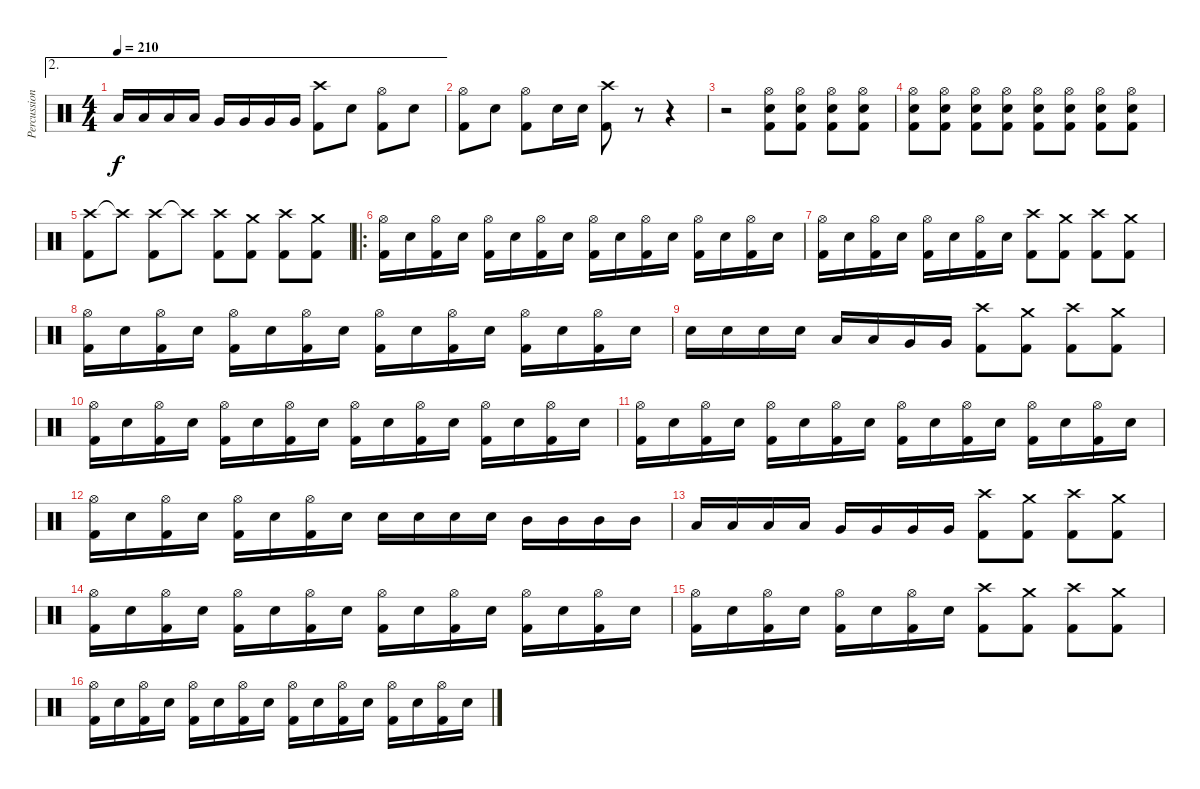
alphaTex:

\track ("Percussion" "Percussion") {instrument percussion}
\staff {score}
\articulation defaults
\ae 2
\ts (4 4)
\tempo 210
\clef neutral
\ks c "Low Tom (hit)".16{dy f} "Low Tom (hit)".16 "Low Tom (hit)".16 "Low Tom (hit)".16 "Very Low Tom (hit)".16 "Very Low Tom (hit)".16 "Very Low Tom (hit)".16 "Very Low Tom (hit)".16
("Crash high (hit)" "Kick (hit) 2").8 "Electric Snare (hit)".8 ("Hi-Hat (open)" "Kick (hit) 2").8 "Electric Snare (hit)".8 |
("Hi-Hat (open)" "Kick (hit) 2").8 "Electric Snare (hit)".8 ("Hi-Hat (open)" "Kick (hit) 2").8 "Electric Snare (hit)".16 "Electric Snare (hit)".16 ("Crash high (hit)" "Kick (hit) 2").8 r.8 r.4 |
r.2 ("Hi-Hat (open)" "Electric Snare (hit)" "Kick (hit) 2").8 ("Hi-Hat (open)" "Electric Snare (hit)" "Kick (hit) 2").8 ("Hi-Hat (open)" "Electric Snare (hit)" "Kick (hit) 2").8 ("Hi-Hat (open)" "Electric Snare (hit)" "Kick (hit) 2").8 |
("Hi-Hat (open)" "Electric Snare (hit)" "Kick (hit) 2").8 ("Hi-Hat (open)" "Electric Snare (hit)" "Kick (hit) 2").8 ("Hi-Hat (open)" "Electric Snare (hit)" "Kick (hit) 2").8 ("Hi-Hat (open)" "Electric Snare (hit)" "Kick (hit) 2").8 ("Hi-Hat (open)" "Electric Snare (hit)" "Kick (hit) 2").8 ("Hi-Hat (open)" "Electric Snare (hit)" "Kick (hit) 2").8 ("Hi-Hat (open)" "Electric Snare (hit)" "Kick (hit) 2").8 ("Hi-Hat (open)" "Electric Snare (hit)" "Kick (hit) 2").8 |
("Crash high (hit)" "Kick (hit) 2").8 "Crash high (hit)"{t}.8 ("Crash high (hit)" "Kick (hit) 2").8 "Crash high (hit)"{t}.8 ("Crash high (hit)" "Kick (hit) 2").8 ("Crash medium (hit)" "Kick (hit) 2").8 ("Crash high (hit)" "Kick (hit) 2").8 ("Crash medium (hit)" "Kick (hit) 2").8 |
\ro
("Hi-Hat (open)" "Kick (hit) 2").16 "Electric Snare (hit)".16 ("Hi-Hat (open)" "Kick (hit) 2").16 "Electric Snare (hit)".16 ("Hi-Hat (open)" "Kick (hit) 2").16 "Electric Snare (hit)".16 ("Hi-Hat (open)" "Kick (hit) 2").16 "Electric Snare (hit)".16 ("Hi-Hat (open)" "Kick (hit) 2").16 "Electric Snare (hit)".16 ("Hi-Hat (open)" "Kick (hit) 2").16 "Electric Snare (hit)".16 ("Hi-Hat (open)" "Kick (hit) 2").16 "Electric Snare (hit)".16 ("Hi-Hat (open)" "Kick (hit) 2").16 "Electric Snare (hit)".16 |
("Hi-Hat (open)" "Kick (hit) 2").16 "Electric Snare (hit)".16 ("Hi-Hat (open)" "Kick (hit) 2").16 "Electric Snare (hit)".16 ("Hi-Hat (open)" "Kick (hit) 2").16 "Electric Snare (hit)".16 ("Hi-Hat (open)" "Kick (hit) 2").16 "Electric Snare (hit)".16 ("Crash high (hit)" "Kick (hit) 2").8 ("Crash medium (hit)" "Kick (hit) 2").8 ("Crash high (hit)" "Kick (hit) 2").8 ("Crash medium (hit)" "Kick (hit) 2").8 |
("Hi-Hat (open)" "Kick (hit) 2").16 "Electric Snare (hit)".16 ("Hi-Hat (open)" "Kick (hit) 2").16 "Electric Snare (hit)".16 ("Hi-Hat (open)" "Kick (hit) 2").16 "Electric Snare (hit)".16 ("Hi-Hat (open)" "Kick (hit) 2").16 "Electric Snare (hit)".16 ("Hi-Hat (open)" "Kick (hit) 2").16 "Electric Snare (hit)".16 ("Hi-Hat (open)" "Kick (hit) 2").16 "Electric Snare (hit)".16 ("Hi-Hat (open)" "Kick (hit) 2").16 "Electric Snare (hit)".16 ("Hi-Hat (open)" "Kick (hit) 2").16 "Electric Snare (hit)".16 |
"Electric Snare (hit)".16 "Electric Snare (hit)".16 "Electric Snare (hit)".16 "Electric Snare (hit)".16 "Low Tom (hit)".16 "Low Tom (hit)".16 "Very Low Tom (hit)".16 "Very Low Tom (hit)".16 ("Crash high (hit)" "Kick (hit) 2").8 ("Crash medium (hit)" "Kick (hit) 2").8 ("Crash high (hit)" "Kick (hit) 2").8 ("Crash medium (hit)" "Kick (hit) 2").8 |
("Hi-Hat (open)" "Kick (hit) 2").16 "Electric Snare (hit)".16 ("Hi-Hat (open)" "Kick (hit) 2").16 "Electric Snare (hit)".16 ("Hi-Hat (open)" "Kick (hit) 2").16 "Electric Snare (hit)".16 ("Hi-Hat (open)" "Kick (hit) 2").16 "Electric Snare (hit)".16 ("Hi-Hat (open)" "Kick (hit) 2").16 "Electric Snare (hit)".16 ("Hi-Hat (open)" "Kick (hit) 2").16 "Electric Snare (hit)".16 ("Hi-Hat (open)" "Kick (hit) 2").16 "Electric Snare (hit)".16 ("Hi-Hat (open)" "Kick (hit) 2").16 "Electric Snare (hit)".16 |
("Hi-Hat (open)" "Kick (hit) 2").16 "Electric Snare (hit)".16 ("Hi-Hat (open)" "Kick (hit) 2").16 "Electric Snare (hit)".16 ("Hi-Hat (open)" "Kick (hit) 2").16 "Electric Snare (hit)".16 ("Hi-Hat (open)" "Kick (hit) 2").16 "Electric Snare (hit)".16 ("Hi-Hat (open)" "Kick (hit) 2").16 "Electric Snare (hit)".16 ("Hi-Hat (open)" "Kick (hit) 2").16 "Electric Snare (hit)".16 ("Hi-Hat (open)" "Kick (hit) 2").16 "Electric Snare (hit)".16 ("Hi-Hat (open)" "Kick (hit) 2").16 "Electric Snare (hit)".16 |
("Hi-Hat (open)" "Kick (hit) 2").16 "Electric Snare (hit)".16 ("Hi-Hat (open)" "Kick (hit) 2").16 "Electric Snare (hit)".16 ("Hi-Hat (open)" "Kick (hit) 2").16 "Electric Snare (hit)".16 ("Hi-Hat (open)" "Kick (hit) 2").16 "Electric Snare (hit)".16 "Electric Snare (hit)".16 "Electric Snare (hit)".16 "Electric Snare (hit)".16 "Electric Snare (hit)".16 "Mid Tom (hit)".16 "Mid Tom (hit)".16 "Mid Tom (hit)".16 "Mid Tom (hit)".16 |
"Low Tom (hit)".16 "Low Tom (hit)".16 "Low Tom (hit)".16 "Low Tom (hit)".16 "Very Low Tom (hit)".16 "Very Low Tom (hit)".16 "Very Low Tom (hit)".16 "Very Low Tom (hit)".16 ("Crash high (hit)" "Kick (hit) 2").8 ("Crash medium (hit)" "Kick (hit) 2").8 ("Crash high (hit)" "Kick (hit) 2").8 ("Crash medium (hit)" "Kick (hit) 2").8 |
("Hi-Hat (open)" "Kick (hit) 2").16 "Electric Snare (hit)".16 ("Hi-Hat (open)" "Kick (hit) 2").16 "Electric Snare (hit)".16 ("Hi-Hat (open)" "Kick (hit) 2").16 "Electric Snare (hit)".16 ("Hi-Hat (open)" "Kick (hit) 2").16 "Electric Snare (hit)".16 ("Hi-Hat (open)" "Kick (hit) 2").16 "Electric Snare (hit)".16 ("Hi-Hat (open)" "Kick (hit) 2").16 "Electric Snare (hit)".16 ("Hi-Hat (open)" "Kick (hit) 2").16 "Electric Snare (hit)".16 ("Hi-Hat (open)" "Kick (hit) 2").16 "Electric Snare (hit)".16 |
("Hi-Hat (open)" "Kick (hit) 2").16 "Electric Snare (hit)".16 ("Hi-Hat (open)" "Kick (hit) 2").16 "Electric Snare (hit)".16 ("Hi-Hat (open)" "Kick (hit) 2").16 "Electric Snare (hit)".16 ("Hi-Hat (open)" "Kick (hit) 2").16 "Electric Snare (hit)".16 ("Crash high (hit)" "Kick (hit) 2").8 ("Crash medium (hit)" "Kick (hit) 2").8 ("Crash high (hit)" "Kick (hit) 2").8 ("Crash medium (hit)" "Kick (hit) 2").8 |
("Hi-Hat (open)" "Kick (hit) 2").16 "Electric Snare (hit)".16 ("Hi-Hat (open)" "Kick (hit) 2").16 "Electric Snare (hit)".16 ("Hi-Hat (open)" "Kick (hit) 2").16 "Electric Snare (hit)".16 ("Hi-Hat (open)" "Kick (hit) 2").16 "Electric Snare (hit)".16 ("Hi-Hat (open)" "Kick (hit) 2").16 "Electric Snare (hit)".16 ("Hi-Hat (open)" "Kick (hit) 2").16 "Electric Snare (hit)".16 ("Hi-Hat (open)" "Kick (hit) 2").16 "Electric Snare (hit)".16 ("Hi-Hat (open)" "Kick (hit) 2").16 "Electric Snare (hit)".16
